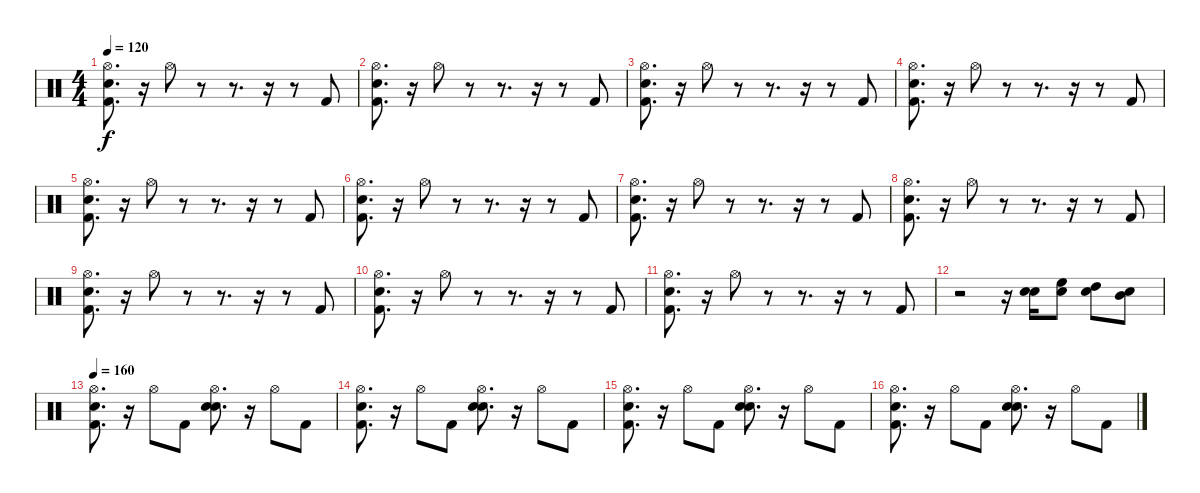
\track "" {instrument percussion}
\staff {score}
\articulation defaults
\ts (4 4)
\tempo 120
\clef neutral
\ks c
("Snare (hit)" "Kick (hit) 2" "Hi-Hat (open)").8{d dy f} r.16 "Hi-Hat (open)".8 r.8 r.8{d} r.16 r.8 "Kick (hit) 2".8 |
("Snare (hit)" "Kick (hit) 2" "Hi-Hat (open)").8{d} r.16 "Hi-Hat (open)".8 r.8 r.8{d} r.16 r.8 "Kick (hit) 2".8 |
("Snare (hit)" "Kick (hit) 2" "Hi-Hat (open)").8{d} r.16 "Hi-Hat (open)".8 r.8 r.8{d} r.16 r.8 "Kick (hit) 2".8 |
("Snare (hit)" "Kick (hit) 2" "Hi-Hat (open)").8{d} r.16 "Hi-Hat (open)".8 r.8 r.8{d} r.16 r.8 "Kick (hit) 2".8 |
("Snare (hit)" "Kick (hit) 2" "Hi-Hat (open)").8{d} r.16 "Hi-Hat (open)".8 r.8 r.8{d} r.16 r.8 "Kick (hit) 2".8 |
("Snare (hit)" "Kick (hit) 2" "Hi-Hat (open)").8{d} r.16 "Hi-Hat (open)".8 r.8 r.8{d} r.16 r.8 "Kick (hit) 2".8 |
("Snare (hit)" "Kick (hit) 2" "Hi-Hat (open)").8{d} r.16 "Hi-Hat (open)".8 r.8 r.8{d} r.16 r.8 "Kick (hit) 2".8 |
("Snare (hit)" "Kick (hit) 2" "Hi-Hat (open)").8{d} r.16 "Hi-Hat (open)".8 r.8 r.8{d} r.16 r.8 "Kick (hit) 2".8 |
("Snare (hit)" "Kick (hit) 2" "Hi-Hat (open)").8{d} r.16 "Hi-Hat (open)".8 r.8 r.8{d} r.16 r.8 "Kick (hit) 2".8 |
("Snare (hit)" "Kick (hit) 2" "Hi-Hat (open)").8{d} r.16 "Hi-Hat (open)".8 r.8 r.8{d} r.16 r.8 "Kick (hit) 2".8 |
("Snare (hit)" "Kick (hit) 2" "Hi-Hat (open)").8{d} r.16 "Hi-Hat (open)".8 r.8 r.8{d} r.16 r.8 "Kick (hit) 2".8 |
r.2 r.16 ("Snare (hit)" "Snare (hit) 2").16 ("Snare (hit)" "High Floor Tom (hit)").8 ("Snare (hit)" "High Tom (hit)").8 ("Snare (hit)" "Mid Tom (hit)").8 |
\tempo 160
("Snare (hit)" "Kick (hit) 2" "Hi-Hat (open)").8{d} r.16 "Hi-Hat (open)".8 "Kick (hit) 2".8 ("Snare (hit)" "Snare (hit) 2" "Hi-Hat (open)").8{d} r.16 "Hi-Hat (open)".8 "Kick (hit) 2".8 |
("Snare (hit)" "Kick (hit) 2" "Hi-Hat (open)").8{d} r.16 "Hi-Hat (open)".8 "Kick (hit) 2".8 ("Snare (hit)" "Snare (hit) 2" "Hi-Hat (open)").8{d} r.16 "Hi-Hat (open)".8 "Kick (hit) 2".8 |
("Snare (hit)" "Kick (hit) 2" "Hi-Hat (open)").8{d} r.16 "Hi-Hat (open)".8 "Kick (hit) 2".8 ("Snare (hit)" "Snare (hit) 2" "Hi-Hat (open)").8{d} r.16 "Hi-Hat (open)".8 "Kick (hit) 2".8 |
("Snare (hit)" "Kick (hit) 2" "Hi-Hat (open)").8{d} r.16 "Hi-Hat (open)".8 "Kick (hit) 2".8 ("Snare (hit)" "Snare (hit) 2" "Hi-Hat (open)").8{d} r.16 "Hi-Hat (open)".8 "Kick (hit) 2".8
